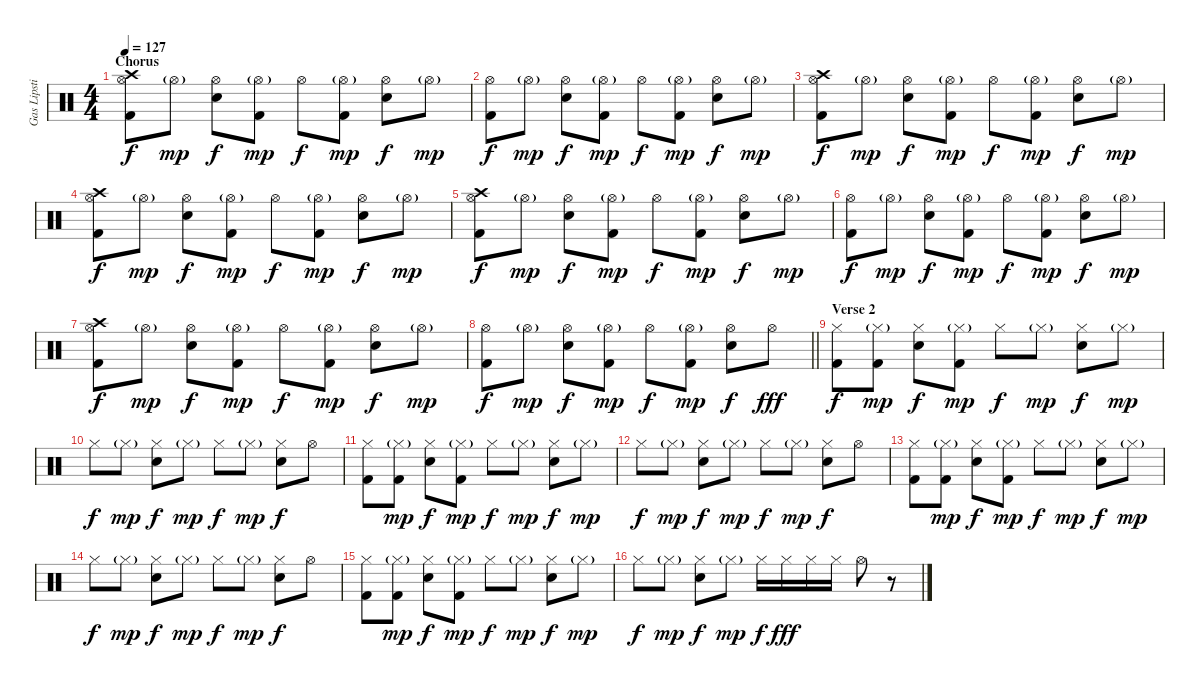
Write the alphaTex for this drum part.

\track ("Gas Lipstick (Drums)" "Gas Lipsti") {instrument percussion}
\staff {score}
\articulation defaults
\ts (4 4)
\section ("" "Chorus")
\tempo 127
\clef neutral
\ks c
("Crash high (hit)" "Hi-Hat (open)" "Kick (hit) 2").8{dy f} "Hi-Hat (open)"{g}.8{dy mp} ("Hi-Hat (open)" "Snare (hit) 2").8{dy f} ("Hi-Hat (open)"{g} "Kick (hit) 2").8{dy mp} "Hi-Hat (open)".8{dy f} ("Hi-Hat (open)"{g} "Kick (hit) 2").8{dy mp} ("Hi-Hat (open)" "Snare (hit) 2").8{dy f} "Hi-Hat (open)"{g}.8{dy mp} |
("Hi-Hat (open)" "Kick (hit) 2").8{dy f} "Hi-Hat (open)"{g}.8{dy mp} ("Hi-Hat (open)" "Snare (hit) 2").8{dy f} ("Hi-Hat (open)"{g} "Kick (hit) 2").8{dy mp} "Hi-Hat (open)".8{dy f} ("Hi-Hat (open)"{g} "Kick (hit) 2").8{dy mp} ("Hi-Hat (open)" "Snare (hit) 2").8{dy f} "Hi-Hat (open)"{g}.8{dy mp} |
("Crash high (hit)" "Hi-Hat (open)" "Kick (hit) 2").8{dy f} "Hi-Hat (open)"{g}.8{dy mp} ("Hi-Hat (open)" "Snare (hit) 2").8{dy f} ("Hi-Hat (open)"{g} "Kick (hit) 2").8{dy mp} "Hi-Hat (open)".8{dy f} ("Hi-Hat (open)"{g} "Kick (hit) 2").8{dy mp} ("Hi-Hat (open)" "Snare (hit) 2").8{dy f} "Hi-Hat (open)"{g}.8{dy mp} |
("Crash high (hit)" "Hi-Hat (open)" "Kick (hit) 2").8{dy f} "Hi-Hat (open)"{g}.8{dy mp} ("Hi-Hat (open)" "Snare (hit) 2").8{dy f} ("Hi-Hat (open)"{g} "Kick (hit) 2").8{dy mp} "Hi-Hat (open)".8{dy f} ("Hi-Hat (open)"{g} "Kick (hit) 2").8{dy mp} ("Hi-Hat (open)" "Snare (hit) 2").8{dy f} "Hi-Hat (open)"{g}.8{dy mp} |
("Crash high (hit)" "Hi-Hat (open)" "Kick (hit) 2").8{dy f} "Hi-Hat (open)"{g}.8{dy mp} ("Hi-Hat (open)" "Snare (hit) 2").8{dy f} ("Hi-Hat (open)"{g} "Kick (hit) 2").8{dy mp} "Hi-Hat (open)".8{dy f} ("Hi-Hat (open)"{g} "Kick (hit) 2").8{dy mp} ("Hi-Hat (open)" "Snare (hit) 2").8{dy f} "Hi-Hat (open)"{g}.8{dy mp} |
("Hi-Hat (open)" "Kick (hit) 2").8{dy f} "Hi-Hat (open)"{g}.8{dy mp} ("Hi-Hat (open)" "Snare (hit) 2").8{dy f} ("Hi-Hat (open)"{g} "Kick (hit) 2").8{dy mp} "Hi-Hat (open)".8{dy f} ("Hi-Hat (open)"{g} "Kick (hit) 2").8{dy mp} ("Hi-Hat (open)" "Snare (hit) 2").8{dy f} "Hi-Hat (open)"{g}.8{dy mp} |
("Crash high (hit)" "Hi-Hat (open)" "Kick (hit) 2").8{dy f} "Hi-Hat (open)"{g}.8{dy mp} ("Hi-Hat (open)" "Snare (hit) 2").8{dy f} ("Hi-Hat (open)"{g} "Kick (hit) 2").8{dy mp} "Hi-Hat (open)".8{dy f} ("Hi-Hat (open)"{g} "Kick (hit) 2").8{dy mp} ("Hi-Hat (open)" "Snare (hit) 2").8{dy f} "Hi-Hat (open)"{g}.8{dy mp} |
\barLineRight lightlight
("Hi-Hat (open)" "Kick (hit) 2").8{dy f} "Hi-Hat (open)"{g}.8{dy mp} ("Hi-Hat (open)" "Snare (hit) 2").8{dy f} ("Hi-Hat (open)"{g} "Kick (hit) 2").8{dy mp} "Hi-Hat (open)".8{dy f} ("Hi-Hat (open)"{g} "Kick (hit) 2").8{dy mp} ("Hi-Hat (open)" "Snare (hit) 2").8{dy f} "Hi-Hat (open)".8{dy fff} |
\section ("" "Verse 2")
("Hi-Hat (closed)" "Kick (hit) 2").8{dy f} ("Hi-Hat (closed)"{g} "Kick (hit) 2").8{dy mp} ("Hi-Hat (closed)" "Snare (hit) 2").8{dy f} ("Hi-Hat (closed)"{g} "Kick (hit) 2").8{dy mp} "Hi-Hat (closed)".8{dy f} "Hi-Hat (closed)"{g}.8{dy mp} ("Hi-Hat (closed)" "Snare (hit) 2").8{dy f} "Hi-Hat (closed)"{g}.8{dy mp} |
"Hi-Hat (closed)".8{dy f} "Hi-Hat (closed)"{g}.8{dy mp} ("Hi-Hat (closed)" "Snare (hit) 2").8{dy f} "Hi-Hat (closed)"{g}.8{dy mp} "Hi-Hat (closed)".8{dy f} "Hi-Hat (closed)"{g}.8{dy mp} ("Hi-Hat (closed)" "Snare (hit) 2").8{dy f} "Hi-Hat (open)".8 |
("Hi-Hat (closed)" "Kick (hit) 2").8 ("Hi-Hat (closed)"{g} "Kick (hit) 2").8{dy mp} ("Hi-Hat (closed)" "Snare (hit) 2").8{dy f} ("Hi-Hat (closed)"{g} "Kick (hit) 2").8{dy mp} "Hi-Hat (closed)".8{dy f} "Hi-Hat (closed)"{g}.8{dy mp} ("Hi-Hat (closed)" "Snare (hit) 2").8{dy f} "Hi-Hat (closed)"{g}.8{dy mp} |
"Hi-Hat (closed)".8{dy f} "Hi-Hat (closed)"{g}.8{dy mp} ("Hi-Hat (closed)" "Snare (hit) 2").8{dy f} "Hi-Hat (closed)"{g}.8{dy mp} "Hi-Hat (closed)".8{dy f} "Hi-Hat (closed)"{g}.8{dy mp} ("Hi-Hat (closed)" "Snare (hit) 2").8{dy f} "Hi-Hat (open)".8 |
("Hi-Hat (closed)" "Kick (hit) 2").8 ("Hi-Hat (closed)"{g} "Kick (hit) 2").8{dy mp} ("Hi-Hat (closed)" "Snare (hit) 2").8{dy f} ("Hi-Hat (closed)"{g} "Kick (hit) 2").8{dy mp} "Hi-Hat (closed)".8{dy f} "Hi-Hat (closed)"{g}.8{dy mp} ("Hi-Hat (closed)" "Snare (hit) 2").8{dy f} "Hi-Hat (closed)"{g}.8{dy mp} |
"Hi-Hat (closed)".8{dy f} "Hi-Hat (closed)"{g}.8{dy mp} ("Hi-Hat (closed)" "Snare (hit) 2").8{dy f} "Hi-Hat (closed)"{g}.8{dy mp} "Hi-Hat (closed)".8{dy f} "Hi-Hat (closed)"{g}.8{dy mp} ("Hi-Hat (closed)" "Snare (hit) 2").8{dy f} "Hi-Hat (open)".8 |
("Hi-Hat (closed)" "Kick (hit) 2").8 ("Hi-Hat (closed)"{g} "Kick (hit) 2").8{dy mp} ("Hi-Hat (closed)" "Snare (hit) 2").8{dy f} ("Hi-Hat (closed)"{g} "Kick (hit) 2").8{dy mp} "Hi-Hat (closed)".8{dy f} "Hi-Hat (closed)"{g}.8{dy mp} ("Hi-Hat (closed)" "Snare (hit) 2").8{dy f} "Hi-Hat (closed)"{g}.8{dy mp} |
"Hi-Hat (closed)".8{dy f} "Hi-Hat (closed)"{g}.8{dy mp} ("Hi-Hat (closed)" "Snare (hit) 2").8{dy f} "Hi-Hat (closed)"{g}.8{dy mp} "Hi-Hat (closed)".16{dy f} "Hi-Hat (closed)".16{dy fff} "Hi-Hat (closed)".16 "Hi-Hat (closed)".16 "Hi-Hat (open)".8 r.8
